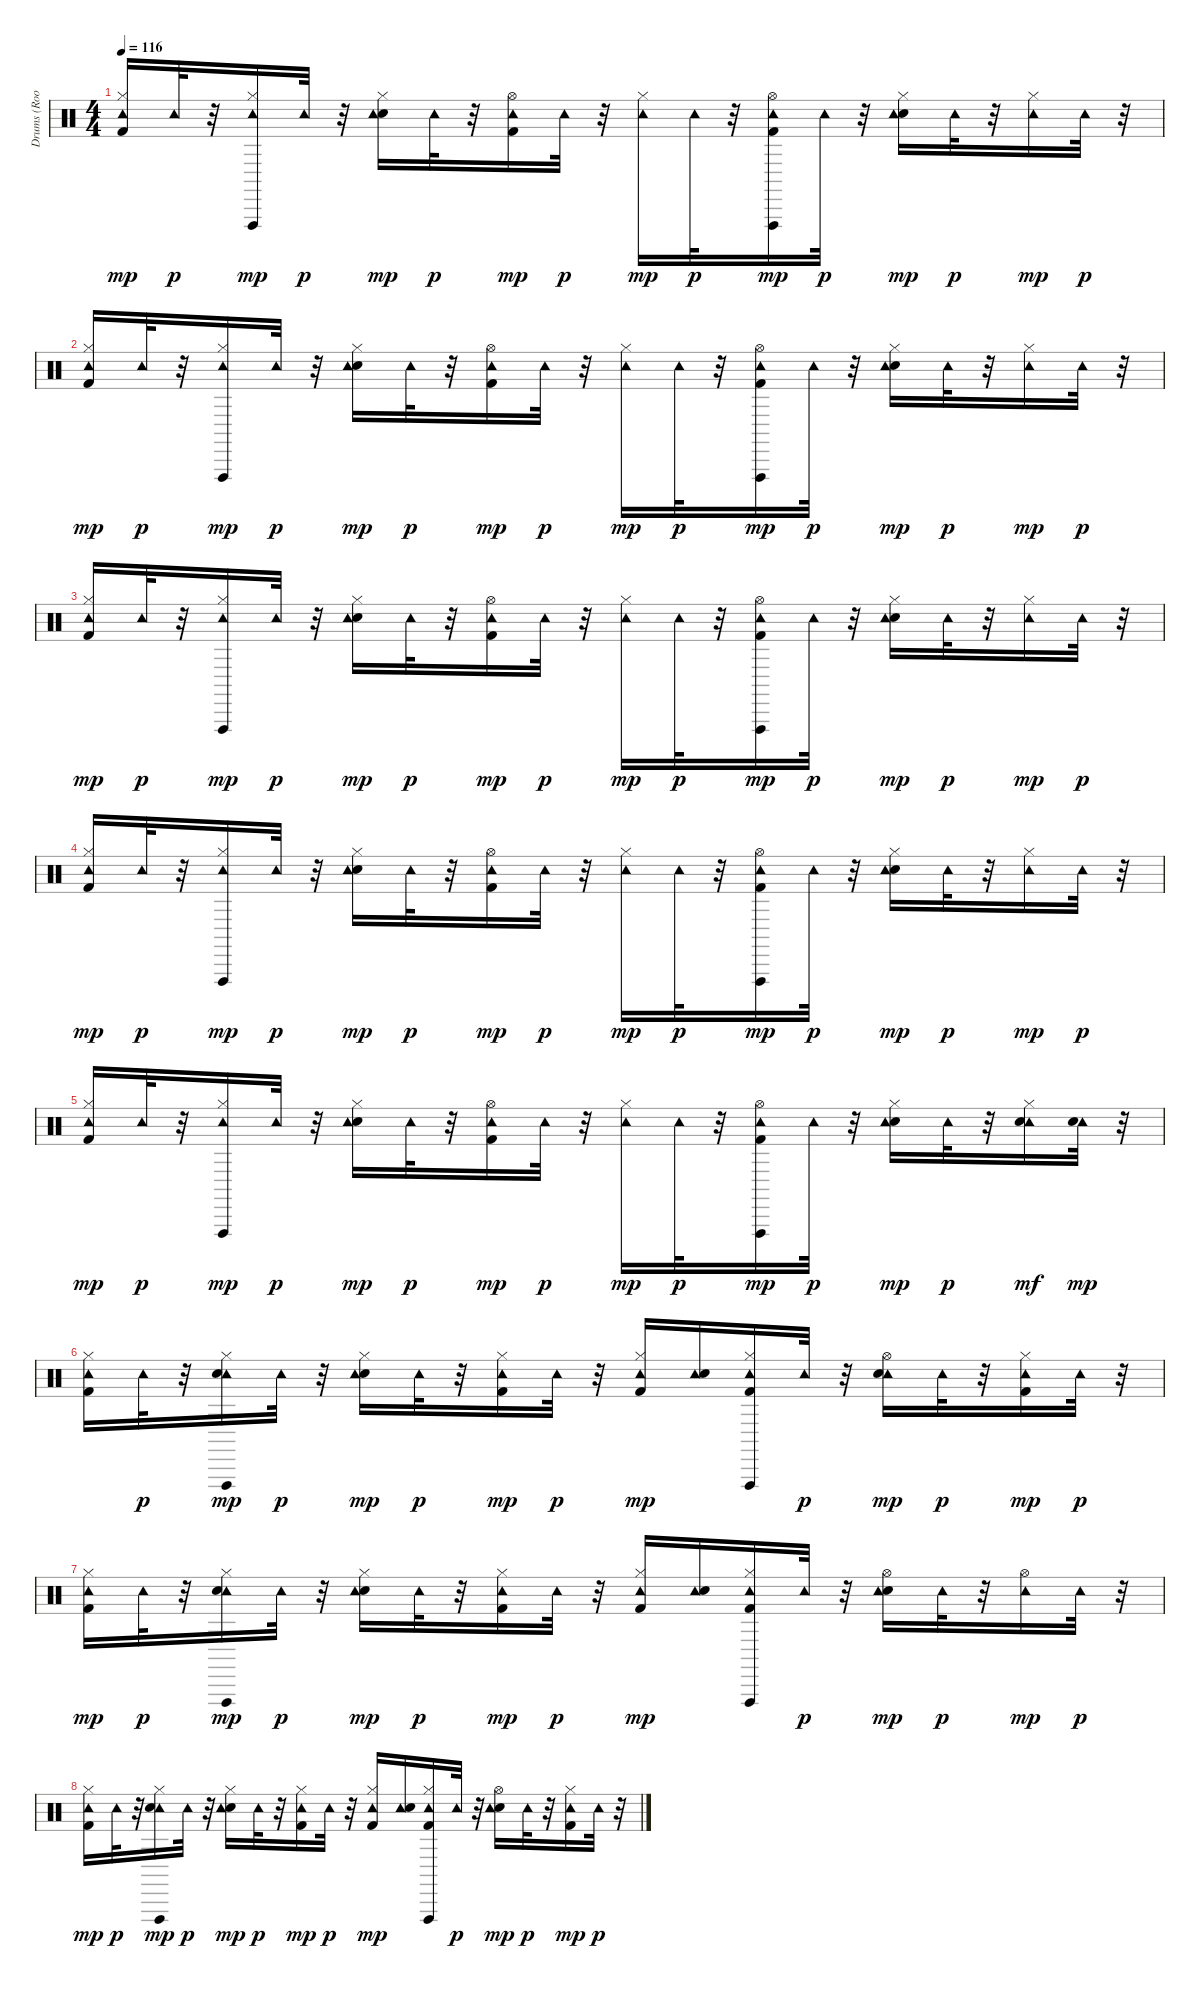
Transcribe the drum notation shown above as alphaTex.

\track ("Drums (Room Kit)    " "Drums (Roo") {instrument percussion}
\staff {score}
\articulation defaults
\ts (4 4)
\tempo 116
\clef neutral
\ks c
("Hi-Hat (closed)" "Kick (hit) 2" "Tambourine (hit)").16{dy mp} "Tambourine (hit)".32{dy p} r.32 ("Hi-Hat (closed)" "Tambourine (hit)" "Vibraslap (hit)").16{dy mp} "Tambourine (hit)".32{dy p} r.32 ("Snare (hit) 2" "Tambourine (hit)" "Hi-Hat (closed)").16{dy mp} "Tambourine (hit)".32{dy p} r.32 ("Kick (hit) 2" "Tambourine (hit)" "Hi-Hat (open)").16{dy mp} "Tambourine (hit)".32{dy p} r.32 ("Hi-Hat (closed)" "Tambourine (hit)").16{dy mp} "Tambourine (hit)".32{dy p} r.32 ("Kick (hit) 2" "Tambourine (hit)" "Vibraslap (hit)" "Hi-Hat (open)").16{dy mp} "Tambourine (hit)".32{dy p} r.32 ("Hi-Hat (closed)" "Snare (hit) 2" "Tambourine (hit)").16{dy mp} "Tambourine (hit)".32{dy p} r.32 ("Hi-Hat (closed)" "Tambourine (hit)").16{dy mp} "Tambourine (hit)".32{dy p} r.32 |
("Kick (hit) 2" "Hi-Hat (closed)" "Tambourine (hit)").16{dy mp} "Tambourine (hit)".32{dy p} r.32 ("Hi-Hat (closed)" "Tambourine (hit)" "Vibraslap (hit)").16{dy mp} "Tambourine (hit)".32{dy p} r.32 ("Snare (hit) 2" "Hi-Hat (closed)" "Tambourine (hit)").16{dy mp} "Tambourine (hit)".32{dy p} r.32 ("Kick (hit) 2" "Tambourine (hit)" "Hi-Hat (open)").16{dy mp} "Tambourine (hit)".32{dy p} r.32 ("Hi-Hat (closed)" "Tambourine (hit)").16{dy mp} "Tambourine (hit)".32{dy p} r.32 ("Kick (hit) 2" "Tambourine (hit)" "Vibraslap (hit)" "Hi-Hat (open)").16{dy mp} "Tambourine (hit)".32{dy p} r.32 ("Snare (hit) 2" "Hi-Hat (closed)" "Tambourine (hit)").16{dy mp} "Tambourine (hit)".32{dy p} r.32 ("Hi-Hat (closed)" "Tambourine (hit)").16{dy mp} "Tambourine (hit)".32{dy p} r.32 |
("Hi-Hat (closed)" "Kick (hit) 2" "Tambourine (hit)").16{dy mp} "Tambourine (hit)".32{dy p} r.32 ("Hi-Hat (closed)" "Tambourine (hit)" "Vibraslap (hit)").16{dy mp} "Tambourine (hit)".32{dy p} r.32 ("Hi-Hat (closed)" "Snare (hit) 2" "Tambourine (hit)").16{dy mp} "Tambourine (hit)".32{dy p} r.32 ("Kick (hit) 2" "Tambourine (hit)" "Hi-Hat (open)").16{dy mp} "Tambourine (hit)".32{dy p} r.32 ("Hi-Hat (closed)" "Tambourine (hit)").16{dy mp} "Tambourine (hit)".32{dy p} r.32 ("Kick (hit) 2" "Tambourine (hit)" "Vibraslap (hit)" "Hi-Hat (open)").16{dy mp} "Tambourine (hit)".32{dy p} r.32 ("Hi-Hat (closed)" "Snare (hit) 2" "Tambourine (hit)").16{dy mp} "Tambourine (hit)".32{dy p} r.32 ("Hi-Hat (closed)" "Tambourine (hit)").16{dy mp} "Tambourine (hit)".32{dy p} r.32 |
("Kick (hit) 2" "Hi-Hat (closed)" "Tambourine (hit)").16{dy mp} "Tambourine (hit)".32{dy p} r.32 ("Hi-Hat (closed)" "Tambourine (hit)" "Vibraslap (hit)").16{dy mp} "Tambourine (hit)".32{dy p} r.32 ("Snare (hit) 2" "Hi-Hat (closed)" "Tambourine (hit)").16{dy mp} "Tambourine (hit)".32{dy p} r.32 ("Kick (hit) 2" "Tambourine (hit)" "Hi-Hat (open)").16{dy mp} "Tambourine (hit)".32{dy p} r.32 ("Hi-Hat (closed)" "Tambourine (hit)").16{dy mp} "Tambourine (hit)".32{dy p} r.32 ("Kick (hit) 2" "Tambourine (hit)" "Vibraslap (hit)" "Hi-Hat (open)").16{dy mp} "Tambourine (hit)".32{dy p} r.32 ("Snare (hit) 2" "Hi-Hat (closed)" "Tambourine (hit)").16{dy mp} "Tambourine (hit)".32{dy p} r.32 ("Hi-Hat (closed)" "Tambourine (hit)").16{dy mp} "Tambourine (hit)".32{dy p} r.32 |
("Hi-Hat (closed)" "Kick (hit) 2" "Tambourine (hit)").16{dy mp} "Tambourine (hit)".32{dy p} r.32 ("Hi-Hat (closed)" "Tambourine (hit)" "Vibraslap (hit)").16{dy mp} "Tambourine (hit)".32{dy p} r.32 ("Hi-Hat (closed)" "Snare (hit) 2" "Tambourine (hit)").16{dy mp} "Tambourine (hit)".32{dy p} r.32 ("Kick (hit) 2" "Tambourine (hit)" "Hi-Hat (open)").16{dy mp} "Tambourine (hit)".32{dy p} r.32 ("Hi-Hat (closed)" "Tambourine (hit)").16{dy mp} "Tambourine (hit)".32{dy p} r.32 ("Kick (hit) 2" "Tambourine (hit)" "Vibraslap (hit)" "Hi-Hat (open)").16{dy mp} "Tambourine (hit)".32{dy p} r.32 ("Hi-Hat (closed)" "Snare (hit) 2" "Tambourine (hit)").16{dy mp} "Tambourine (hit)".32{dy p} r.32 ("Hi-Hat (closed)" "Tambourine (hit)" "Snare (hit) 2").16{dy mf} ("Tambourine (hit)" "Snare (hit) 2").32{dy mp} r.32 |
("Kick (hit) 2" "Hi-Hat (closed)" "Tambourine (hit)").16 "Tambourine (hit)".32{dy p} r.32 ("Hi-Hat (closed)" "Tambourine (hit)" "Vibraslap (hit)" "Snare (hit) 2").16{dy mp} "Tambourine (hit)".32{dy p} r.32 ("Snare (hit) 2" "Hi-Hat (closed)" "Tambourine (hit)").16{dy mp} "Tambourine (hit)".32{dy p} r.32 ("Kick (hit) 2" "Tambourine (hit)" "Hi-Hat (closed)").16{dy mp} "Tambourine (hit)".32{dy p} r.32 ("Hi-Hat (closed)" "Tambourine (hit)" "Kick (hit) 2").16{dy mp} ("Tambourine (hit)" "Snare (hit) 2").16 ("Tambourine (hit)" "Vibraslap (hit)" "Hi-Hat (closed)" "Kick (hit) 2").16 "Tambourine (hit)".32{dy p} r.32 ("Tambourine (hit)" "Hi-Hat (open)" "Snare (hit) 2").16{dy mp} "Tambourine (hit)".32{dy p} r.32 ("Hi-Hat (closed)" "Tambourine (hit)" "Kick (hit) 2").16{dy mp} "Tambourine (hit)".32{dy p} r.32 |
("Hi-Hat (closed)" "Kick (hit) 2" "Tambourine (hit)").16{dy mp} "Tambourine (hit)".32{dy p} r.32 ("Hi-Hat (closed)" "Tambourine (hit)" "Vibraslap (hit)" "Snare (hit) 2").16{dy mp} "Tambourine (hit)".32{dy p} r.32 ("Hi-Hat (closed)" "Snare (hit) 2" "Tambourine (hit)").16{dy mp} "Tambourine (hit)".32{dy p} r.32 ("Kick (hit) 2" "Tambourine (hit)" "Hi-Hat (closed)").16{dy mp} "Tambourine (hit)".32{dy p} r.32 ("Hi-Hat (closed)" "Tambourine (hit)" "Kick (hit) 2").16{dy mp} ("Tambourine (hit)" "Snare (hit) 2").16 ("Kick (hit) 2" "Tambourine (hit)" "Vibraslap (hit)" "Hi-Hat (closed)").16 "Tambourine (hit)".32{dy p} r.32 ("Snare (hit) 2" "Tambourine (hit)" "Hi-Hat (open)").16{dy mp} "Tambourine (hit)".32{dy p} r.32 ("Tambourine (hit)" "Hi-Hat (open)").16{dy mp} "Tambourine (hit)".32{dy p} r.32 |
("Kick (hit) 2" "Hi-Hat (closed)" "Tambourine (hit)").16{dy mp} "Tambourine (hit)".32{dy p} r.32 ("Hi-Hat (closed)" "Tambourine (hit)" "Vibraslap (hit)" "Snare (hit) 2").16{dy mp} "Tambourine (hit)".32{dy p} r.32 ("Snare (hit) 2" "Hi-Hat (closed)" "Tambourine (hit)").16{dy mp} "Tambourine (hit)".32{dy p} r.32 ("Kick (hit) 2" "Tambourine (hit)" "Hi-Hat (closed)").16{dy mp} "Tambourine (hit)".32{dy p} r.32 ("Hi-Hat (closed)" "Tambourine (hit)" "Kick (hit) 2").16{dy mp} ("Tambourine (hit)" "Snare (hit) 2").16 ("Kick (hit) 2" "Tambourine (hit)" "Vibraslap (hit)" "Hi-Hat (closed)").16 "Tambourine (hit)".32{dy p} r.32 ("Snare (hit) 2" "Tambourine (hit)" "Hi-Hat (open)").16{dy mp} "Tambourine (hit)".32{dy p} r.32 ("Hi-Hat (closed)" "Tambourine (hit)" "Kick (hit) 2").16{dy mp} "Tambourine (hit)".32{dy p} r.32
